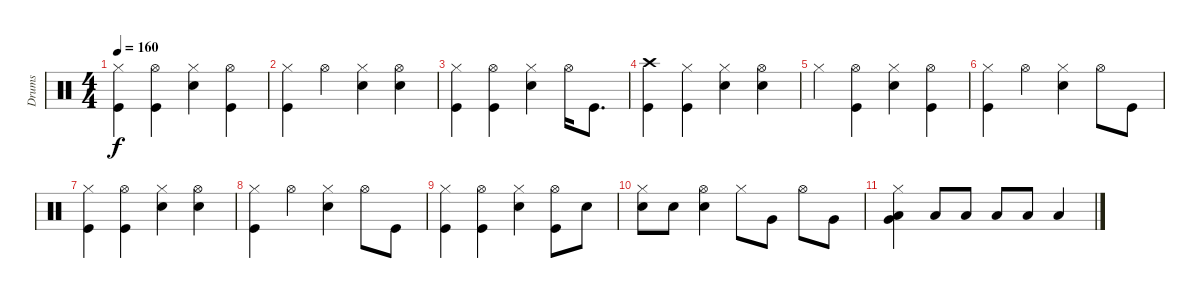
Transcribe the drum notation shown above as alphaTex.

\track ("Drums" "Drums") {instrument percussion}
\staff {score}
\articulation defaults
\ts (4 4)
\tempo 160
\clef neutral
\ks c
("Hi-Hat (closed)" "Kick (hit)").4{dy f} ("Hi-Hat (open)" "Kick (hit)").4 ("Hi-Hat (closed)" "Snare (hit) 2").4 ("Hi-Hat (open)" "Kick (hit)").4 |
("Hi-Hat (closed)" "Kick (hit)").4 "Hi-Hat (open)".4 ("Snare (hit) 2" "Hi-Hat (closed)").4 ("Snare (hit) 2" "Hi-Hat (open)").4 |
("Hi-Hat (closed)" "Kick (hit)").4 ("Hi-Hat (open)" "Kick (hit)").4 ("Hi-Hat (closed)" "Snare (hit) 2").4 "Hi-Hat (open)".16 "Kick (hit)".8{d} |
("Kick (hit)" "Crash high (hit)").4 ("Hi-Hat (closed)" "Kick (hit)").4 ("Hi-Hat (closed)" "Snare (hit) 2").4 ("Snare (hit) 2" "Hi-Hat (open)").4 |
"Hi-Hat (closed)".4 ("Kick (hit)" "Hi-Hat (open)").4 ("Snare (hit) 2" "Hi-Hat (closed)").4 ("Kick (hit)" "Hi-Hat (open)").4 |
("Kick (hit)" "Hi-Hat (closed)").4 "Hi-Hat (open)".4 ("Snare (hit) 2" "Hi-Hat (closed)").4 "Hi-Hat (open)".8 "Kick (hit)".8 |
("Hi-Hat (closed)" "Kick (hit)").4 ("Hi-Hat (open)" "Kick (hit)").4 ("Hi-Hat (closed)" "Snare (hit) 2").4 ("Hi-Hat (open)" "Snare (hit) 2").4 |
("Hi-Hat (closed)" "Kick (hit)").4 "Hi-Hat (open)".4 ("Snare (hit) 2" "Hi-Hat (closed)").4 "Hi-Hat (open)".8 "Kick (hit)".8 |
("Hi-Hat (closed)" "Kick (hit)").4 ("Hi-Hat (open)" "Kick (hit)").4 ("Hi-Hat (closed)" "Snare (hit) 2").4 ("Hi-Hat (open)" "Kick (hit)").8 "Snare (hit) 2".8 |
("Hi-Hat (closed)" "Snare (hit) 2").8 "Snare (hit) 2".8 ("Snare (hit) 2" "Hi-Hat (open)").4 "Hi-Hat (closed)".8 "Very Low Tom (hit)".8 "Hi-Hat (open)".8 "Very Low Tom (hit)".8 |
("Very Low Tom (hit)" "Hi-Hat (closed)" "Low Floor Tom (hit)").4 "Low Floor Tom (hit)".8 "Low Floor Tom (hit)".8 "Low Floor Tom (hit)".8 "Low Floor Tom (hit)".8 "Low Floor Tom (hit)".4
